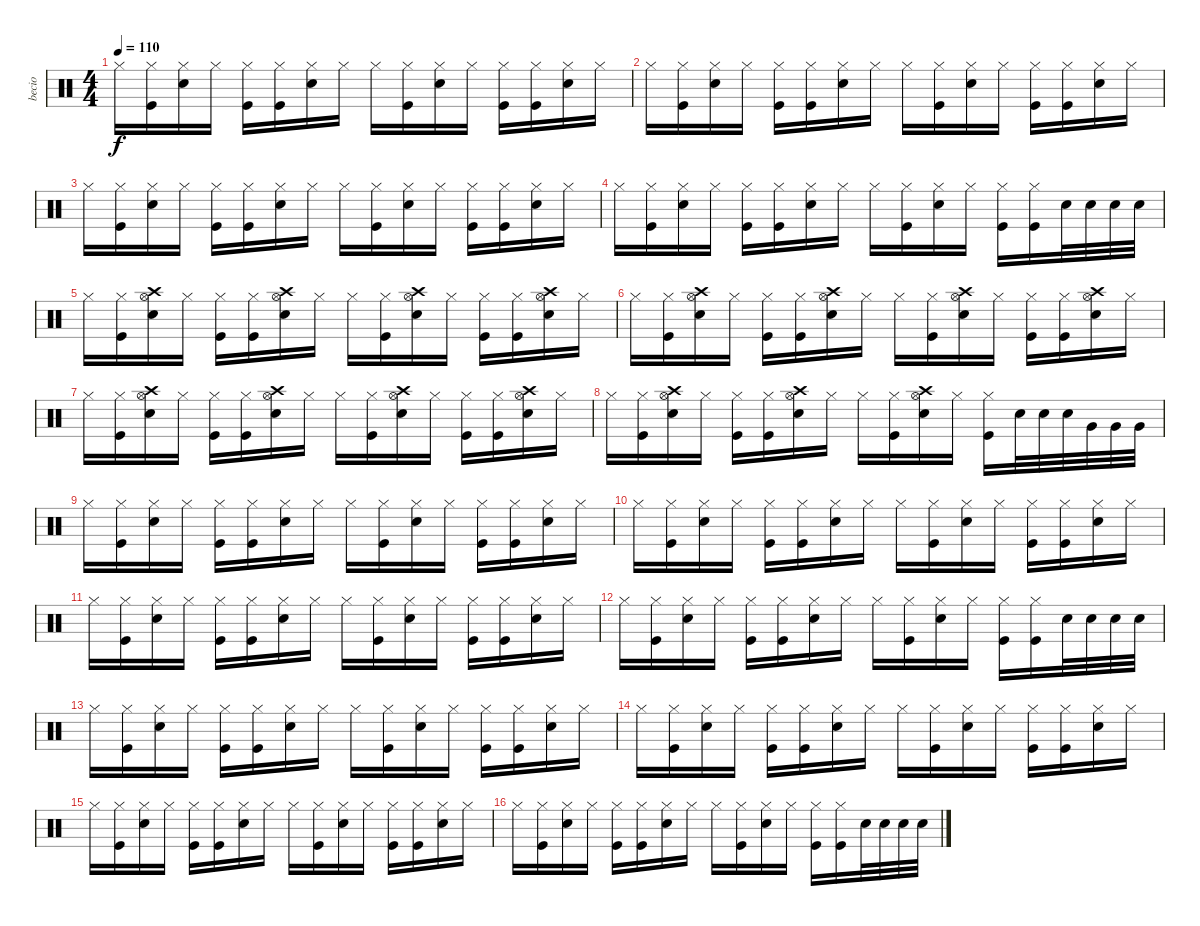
\track ("becio" "becio") {instrument percussion}
\staff {score}
\articulation defaults
\ts (4 4)
\tempo 110
\clef neutral
\ks c "Hi-Hat (closed)".16{dy f}
("Kick (hit)" "Hi-Hat (closed)").16 ("Snare (hit) 2" "Hi-Hat (closed)").16 "Hi-Hat (closed)".16 ("Kick (hit)" "Hi-Hat (closed)").16 ("Kick (hit)" "Hi-Hat (closed)").16 ("Snare (hit) 2" "Hi-Hat (closed)").16 "Hi-Hat (closed)".16 "Hi-Hat (closed)".16 ("Kick (hit)" "Hi-Hat (closed)").16 ("Snare (hit) 2" "Hi-Hat (closed)").16 "Hi-Hat (closed)".16 ("Kick (hit)" "Hi-Hat (closed)").16 ("Kick (hit)" "Hi-Hat (closed)").16 ("Snare (hit) 2" "Hi-Hat (closed)").16 "Hi-Hat (closed)".16 |
"Hi-Hat (closed)".16 ("Kick (hit)" "Hi-Hat (closed)").16 ("Snare (hit) 2" "Hi-Hat (closed)").16 "Hi-Hat (closed)".16 ("Kick (hit)" "Hi-Hat (closed)").16 ("Kick (hit)" "Hi-Hat (closed)").16 ("Snare (hit) 2" "Hi-Hat (closed)").16 "Hi-Hat (closed)".16 "Hi-Hat (closed)".16 ("Kick (hit)" "Hi-Hat (closed)").16 ("Snare (hit) 2" "Hi-Hat (closed)").16 "Hi-Hat (closed)".16 ("Kick (hit)" "Hi-Hat (closed)").16 ("Kick (hit)" "Hi-Hat (closed)").16 ("Snare (hit) 2" "Hi-Hat (closed)").16 "Hi-Hat (closed)".16 |
"Hi-Hat (closed)".16 ("Kick (hit)" "Hi-Hat (closed)").16 ("Snare (hit) 2" "Hi-Hat (closed)").16 "Hi-Hat (closed)".16 ("Kick (hit)" "Hi-Hat (closed)").16 ("Kick (hit)" "Hi-Hat (closed)").16 ("Snare (hit) 2" "Hi-Hat (closed)").16 "Hi-Hat (closed)".16 "Hi-Hat (closed)".16 ("Kick (hit)" "Hi-Hat (closed)").16 ("Snare (hit) 2" "Hi-Hat (closed)").16 "Hi-Hat (closed)".16 ("Kick (hit)" "Hi-Hat (closed)").16 ("Kick (hit)" "Hi-Hat (closed)").16 ("Snare (hit) 2" "Hi-Hat (closed)").16 "Hi-Hat (closed)".16 |
"Hi-Hat (closed)".16 ("Kick (hit)" "Hi-Hat (closed)").16 ("Snare (hit) 2" "Hi-Hat (closed)").16 "Hi-Hat (closed)".16 ("Kick (hit)" "Hi-Hat (closed)").16 ("Kick (hit)" "Hi-Hat (closed)").16 ("Snare (hit) 2" "Hi-Hat (closed)").16 "Hi-Hat (closed)".16 "Hi-Hat (closed)".16 ("Kick (hit)" "Hi-Hat (closed)").16 ("Snare (hit) 2" "Hi-Hat (closed)").16 "Hi-Hat (closed)".16 ("Kick (hit)" "Hi-Hat (closed)").16 ("Kick (hit)" "Hi-Hat (closed)").16 "Snare (hit) 2".32 "Snare (hit) 2".32 "Snare (hit) 2".32 "Snare (hit) 2".32 |
"Hi-Hat (closed)".16 ("Kick (hit)" "Hi-Hat (closed)").16 ("Snare (hit) 2" "Hi-Hat (open)" "Crash high (hit)").16 "Hi-Hat (closed)".16 ("Kick (hit)" "Hi-Hat (closed)").16 ("Kick (hit)" "Hi-Hat (closed)").16 ("Snare (hit) 2" "Hi-Hat (open)" "Crash high (hit)").16 "Hi-Hat (closed)".16 "Hi-Hat (closed)".16 ("Kick (hit)" "Hi-Hat (closed)").16 ("Snare (hit) 2" "Hi-Hat (open)" "Crash high (hit)").16 "Hi-Hat (closed)".16 ("Kick (hit)" "Hi-Hat (closed)").16 ("Kick (hit)" "Hi-Hat (closed)").16 ("Snare (hit) 2" "Hi-Hat (open)" "Crash high (hit)").16 "Hi-Hat (closed)".16 |
"Hi-Hat (closed)".16 ("Kick (hit)" "Hi-Hat (closed)").16 ("Snare (hit) 2" "Hi-Hat (open)" "Crash high (hit)").16 "Hi-Hat (closed)".16 ("Kick (hit)" "Hi-Hat (closed)").16 ("Kick (hit)" "Hi-Hat (closed)").16 ("Snare (hit) 2" "Hi-Hat (open)" "Crash high (hit)").16 "Hi-Hat (closed)".16 "Hi-Hat (closed)".16 ("Kick (hit)" "Hi-Hat (closed)").16 ("Snare (hit) 2" "Hi-Hat (open)" "Crash high (hit)").16 "Hi-Hat (closed)".16 ("Kick (hit)" "Hi-Hat (closed)").16 ("Kick (hit)" "Hi-Hat (closed)").16 ("Snare (hit) 2" "Hi-Hat (open)" "Crash high (hit)").16 "Hi-Hat (closed)".16 |
"Hi-Hat (closed)".16 ("Kick (hit)" "Hi-Hat (closed)").16 ("Snare (hit) 2" "Hi-Hat (open)" "Crash high (hit)").16 "Hi-Hat (closed)".16 ("Kick (hit)" "Hi-Hat (closed)").16 ("Kick (hit)" "Hi-Hat (closed)").16 ("Snare (hit) 2" "Hi-Hat (open)" "Crash high (hit)").16 "Hi-Hat (closed)".16 "Hi-Hat (closed)".16 ("Kick (hit)" "Hi-Hat (closed)").16 ("Snare (hit) 2" "Hi-Hat (open)" "Crash high (hit)").16 "Hi-Hat (closed)".16 ("Kick (hit)" "Hi-Hat (closed)").16 ("Kick (hit)" "Hi-Hat (closed)").16 ("Snare (hit) 2" "Hi-Hat (open)" "Crash high (hit)").16 "Hi-Hat (closed)".16 |
"Hi-Hat (closed)".16 ("Kick (hit)" "Hi-Hat (closed)").16 ("Snare (hit) 2" "Hi-Hat (open)" "Crash high (hit)").16 "Hi-Hat (closed)".16 ("Kick (hit)" "Hi-Hat (closed)").16 ("Kick (hit)" "Hi-Hat (closed)").16 ("Snare (hit) 2" "Hi-Hat (open)" "Crash high (hit)").16 "Hi-Hat (closed)".16 "Hi-Hat (closed)".16 ("Kick (hit)" "Hi-Hat (closed)").16 ("Snare (hit) 2" "Hi-Hat (open)" "Crash high (hit)").16 "Hi-Hat (closed)".16 ("Kick (hit)" "Hi-Hat (closed)").16 "Snare (hit) 2".32 "Snare (hit) 2".32 "Snare (hit) 2".32 "Very Low Tom (hit)".32 "Very Low Tom (hit)".32 "Very Low Tom (hit)".32 |
"Hi-Hat (closed)".16 ("Kick (hit)" "Hi-Hat (closed)").16 ("Snare (hit) 2" "Hi-Hat (closed)").16 "Hi-Hat (closed)".16 ("Kick (hit)" "Hi-Hat (closed)").16 ("Kick (hit)" "Hi-Hat (closed)").16 ("Snare (hit) 2" "Hi-Hat (closed)").16 "Hi-Hat (closed)".16 "Hi-Hat (closed)".16 ("Kick (hit)" "Hi-Hat (closed)").16 ("Snare (hit) 2" "Hi-Hat (closed)").16 "Hi-Hat (closed)".16 ("Kick (hit)" "Hi-Hat (closed)").16 ("Kick (hit)" "Hi-Hat (closed)").16 ("Snare (hit) 2" "Hi-Hat (closed)").16 "Hi-Hat (closed)".16 |
"Hi-Hat (closed)".16 ("Kick (hit)" "Hi-Hat (closed)").16 ("Snare (hit) 2" "Hi-Hat (closed)").16 "Hi-Hat (closed)".16 ("Kick (hit)" "Hi-Hat (closed)").16 ("Kick (hit)" "Hi-Hat (closed)").16 ("Snare (hit) 2" "Hi-Hat (closed)").16 "Hi-Hat (closed)".16 "Hi-Hat (closed)".16 ("Kick (hit)" "Hi-Hat (closed)").16 ("Snare (hit) 2" "Hi-Hat (closed)").16 "Hi-Hat (closed)".16 ("Kick (hit)" "Hi-Hat (closed)").16 ("Kick (hit)" "Hi-Hat (closed)").16 ("Snare (hit) 2" "Hi-Hat (closed)").16 "Hi-Hat (closed)".16 |
"Hi-Hat (closed)".16 ("Kick (hit)" "Hi-Hat (closed)").16 ("Snare (hit) 2" "Hi-Hat (closed)").16 "Hi-Hat (closed)".16 ("Kick (hit)" "Hi-Hat (closed)").16 ("Kick (hit)" "Hi-Hat (closed)").16 ("Snare (hit) 2" "Hi-Hat (closed)").16 "Hi-Hat (closed)".16 "Hi-Hat (closed)".16 ("Kick (hit)" "Hi-Hat (closed)").16 ("Snare (hit) 2" "Hi-Hat (closed)").16 "Hi-Hat (closed)".16 ("Kick (hit)" "Hi-Hat (closed)").16 ("Kick (hit)" "Hi-Hat (closed)").16 ("Snare (hit) 2" "Hi-Hat (closed)").16 "Hi-Hat (closed)".16 |
"Hi-Hat (closed)".16 ("Kick (hit)" "Hi-Hat (closed)").16 ("Snare (hit) 2" "Hi-Hat (closed)").16 "Hi-Hat (closed)".16 ("Kick (hit)" "Hi-Hat (closed)").16 ("Kick (hit)" "Hi-Hat (closed)").16 ("Snare (hit) 2" "Hi-Hat (closed)").16 "Hi-Hat (closed)".16 "Hi-Hat (closed)".16 ("Kick (hit)" "Hi-Hat (closed)").16 ("Snare (hit) 2" "Hi-Hat (closed)").16 "Hi-Hat (closed)".16 ("Kick (hit)" "Hi-Hat (closed)").16 ("Kick (hit)" "Hi-Hat (closed)").16 "Snare (hit) 2".32 "Snare (hit) 2".32 "Snare (hit) 2".32 "Snare (hit) 2".32 |
"Hi-Hat (closed)".16 ("Kick (hit)" "Hi-Hat (closed)").16 ("Snare (hit) 2" "Hi-Hat (closed)").16 "Hi-Hat (closed)".16 ("Kick (hit)" "Hi-Hat (closed)").16 ("Kick (hit)" "Hi-Hat (closed)").16 ("Snare (hit) 2" "Hi-Hat (closed)").16 "Hi-Hat (closed)".16 "Hi-Hat (closed)".16 ("Kick (hit)" "Hi-Hat (closed)").16 ("Snare (hit) 2" "Hi-Hat (closed)").16 "Hi-Hat (closed)".16 ("Kick (hit)" "Hi-Hat (closed)").16 ("Kick (hit)" "Hi-Hat (closed)").16 ("Snare (hit) 2" "Hi-Hat (closed)").16 "Hi-Hat (closed)".16 |
"Hi-Hat (closed)".16 ("Kick (hit)" "Hi-Hat (closed)").16 ("Snare (hit) 2" "Hi-Hat (closed)").16 "Hi-Hat (closed)".16 ("Kick (hit)" "Hi-Hat (closed)").16 ("Kick (hit)" "Hi-Hat (closed)").16 ("Snare (hit) 2" "Hi-Hat (closed)").16 "Hi-Hat (closed)".16 "Hi-Hat (closed)".16 ("Kick (hit)" "Hi-Hat (closed)").16 ("Snare (hit) 2" "Hi-Hat (closed)").16 "Hi-Hat (closed)".16 ("Kick (hit)" "Hi-Hat (closed)").16 ("Kick (hit)" "Hi-Hat (closed)").16 ("Snare (hit) 2" "Hi-Hat (closed)").16 "Hi-Hat (closed)".16 |
"Hi-Hat (closed)".16 ("Kick (hit)" "Hi-Hat (closed)").16 ("Snare (hit) 2" "Hi-Hat (closed)").16 "Hi-Hat (closed)".16 ("Kick (hit)" "Hi-Hat (closed)").16 ("Kick (hit)" "Hi-Hat (closed)").16 ("Snare (hit) 2" "Hi-Hat (closed)").16 "Hi-Hat (closed)".16 "Hi-Hat (closed)".16 ("Kick (hit)" "Hi-Hat (closed)").16 ("Snare (hit) 2" "Hi-Hat (closed)").16 "Hi-Hat (closed)".16 ("Kick (hit)" "Hi-Hat (closed)").16 ("Kick (hit)" "Hi-Hat (closed)").16 ("Snare (hit) 2" "Hi-Hat (closed)").16 "Hi-Hat (closed)".16 |
"Hi-Hat (closed)".16 ("Kick (hit)" "Hi-Hat (closed)").16 ("Snare (hit) 2" "Hi-Hat (closed)").16 "Hi-Hat (closed)".16 ("Kick (hit)" "Hi-Hat (closed)").16 ("Kick (hit)" "Hi-Hat (closed)").16 ("Snare (hit) 2" "Hi-Hat (closed)").16 "Hi-Hat (closed)".16 "Hi-Hat (closed)".16 ("Kick (hit)" "Hi-Hat (closed)").16 ("Snare (hit) 2" "Hi-Hat (closed)").16 "Hi-Hat (closed)".16 ("Kick (hit)" "Hi-Hat (closed)").16 ("Kick (hit)" "Hi-Hat (closed)").16 "Snare (hit) 2".32 "Snare (hit) 2".32 "Snare (hit) 2".32 "Snare (hit) 2".32
